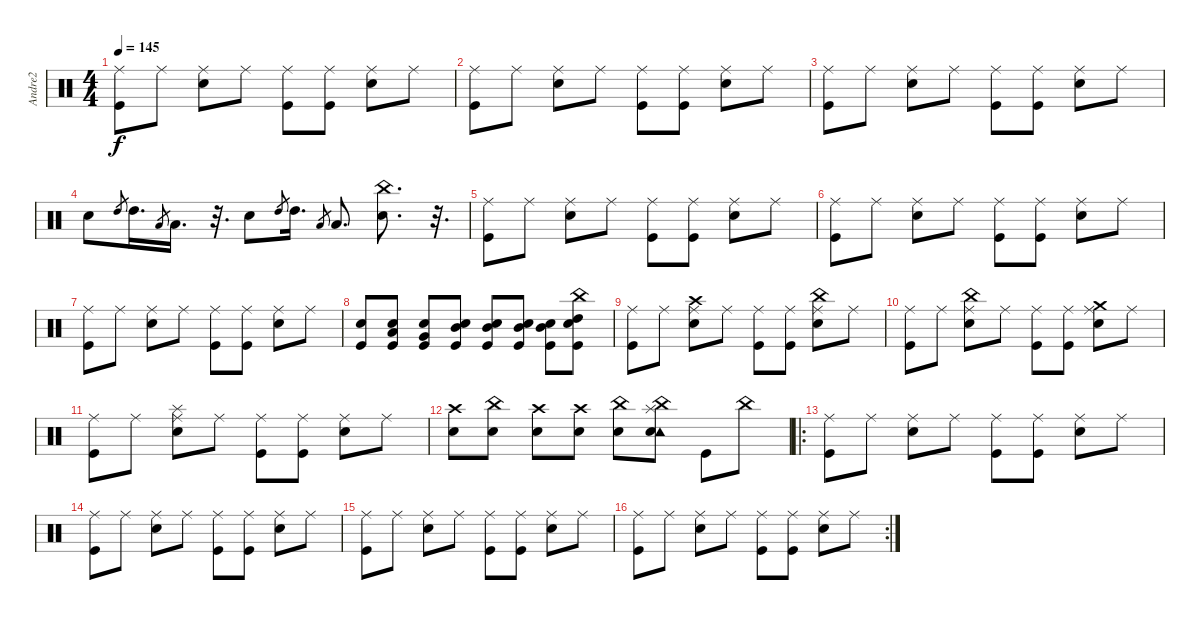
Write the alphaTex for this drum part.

\track ("Andre2" "Andre2") {instrument percussion}
\staff {score}
\articulation defaults
\ts (4 4)
\tempo 145
\clef neutral
\ks c
("Kick (hit)" "Ride (middle)").8{dy f} "Ride (middle)".8 ("Ride (middle)" "Snare (hit) 2").8 "Ride (middle)".8 ("Kick (hit)" "Ride (middle)").8 ("Kick (hit)" "Ride (middle)").8 ("Ride (middle)" "Snare (hit) 2").8 "Ride (middle)".8 |
("Kick (hit)" "Ride (middle)").8 "Ride (middle)".8 ("Ride (middle)" "Snare (hit) 2").8 "Ride (middle)".8 ("Kick (hit)" "Ride (middle)").8 ("Kick (hit)" "Ride (middle)").8 ("Ride (middle)" "Snare (hit) 2").8 "Ride (middle)".8 |
("Kick (hit)" "Ride (middle)").8 "Ride (middle)".8 ("Ride (middle)" "Snare (hit) 2").8 "Ride (middle)".8 ("Kick (hit)" "Ride (middle)").8 ("Kick (hit)" "Ride (middle)").8 ("Ride (middle)" "Snare (hit) 2").8 "Ride (middle)".8 |
"Snare (hit) 2".8 "High Tom (hit)".8{gr} "High Tom (hit)".16{d} "Low Tom (hit)".8{gr} "Low Tom (hit)".16{d} r.32{d} "Snare (hit) 2".8 "High Tom (hit)".8{gr} "High Tom (hit)".16{d} "Low Tom (hit)".8{gr} "Low Tom (hit)".8{d} ("China (hit)" "Snare (hit) 2").8{d} r.32{d} |
("Kick (hit)" "Ride (middle)").8 "Ride (middle)".8 ("Ride (middle)" "Snare (hit) 2").8 "Ride (middle)".8 ("Kick (hit)" "Ride (middle)").8 ("Kick (hit)" "Ride (middle)").8 ("Ride (middle)" "Snare (hit) 2").8 "Ride (middle)".8 |
("Kick (hit)" "Ride (middle)").8 "Ride (middle)".8 ("Ride (middle)" "Snare (hit) 2").8 "Ride (middle)".8 ("Kick (hit)" "Ride (middle)").8 ("Kick (hit)" "Ride (middle)").8 ("Ride (middle)" "Snare (hit) 2").8 "Ride (middle)".8 |
("Kick (hit)" "Ride (middle)").8 "Ride (middle)".8 ("Ride (middle)" "Snare (hit) 2").8 "Ride (middle)".8 ("Kick (hit)" "Ride (middle)").8 ("Kick (hit)" "Ride (middle)").8 ("Ride (middle)" "Snare (hit) 2").8 "Ride (middle)".8 |
("Snare (hit) 2" "Kick (hit)").8 ("Low Tom (hit)" "Kick (hit)" "Snare (hit) 2").8 ("Very Low Tom (hit)" "Kick (hit)" "Snare (hit) 2").8 ("Mid Tom (hit)" "Kick (hit)" "Snare (hit) 2").8 ("Mid Tom (hit)" "Kick (hit)" "Snare (hit) 2").8 ("Mid Tom (hit)" "Kick (hit)" "Snare (hit) 2").8 ("Mid Tom (hit)" "Kick (hit)" "Snare (hit) 2").8 ("High Tom (hit)" "Kick (hit)" "China (hit)" "Snare (hit) 2").8 |
("Kick (hit)" "Ride (middle)").8 "Ride (middle)".8 ("Crash high (hit)" "Ride (middle)" "Snare (hit) 2").8 "Ride (middle)".8 ("Kick (hit)" "Ride (middle)").8 ("Kick (hit)" "Ride (middle)").8 ("China (hit)" "Ride (middle)" "Snare (hit) 2").8 "Ride (middle)".8 |
("Kick (hit)" "Ride (middle)").8 "Ride (middle)".8 ("China (hit)" "Ride (middle)" "Snare (hit) 2").8 "Ride (middle)".8 ("Kick (hit)" "Ride (middle)").8 ("Kick (hit)" "Ride (middle)").8 ("Crash medium (hit)" "Ride (middle)" "Snare (hit) 2").8 "Ride (middle)".8 |
("Kick (hit)" "Ride (middle)").8 "Ride (middle)".8 ("Splash (hit)" "Ride (middle)" "Snare (hit) 2").8 "Ride (middle)".8 ("Kick (hit)" "Ride (middle)").8 ("Kick (hit)" "Ride (middle)").8 ("Ride (middle)" "Snare (hit) 2").8 "Ride (middle)".8 |
("Crash high (hit)" "Snare (hit) 2").8 ("China (hit)" "Snare (hit) 2").8 ("Crash high (hit)" "Snare (hit) 2").8 ("Crash high (hit)" "Snare (hit) 2").8 ("China (hit)" "Snare (hit) 2").8 ("Tambourine (hit)" "China (hit)" "Splash (hit)" "Snare (hit) 2").8 "Kick (hit)".8 "China (hit)".8 |
\ro
("Kick (hit)" "Ride (middle)").8 "Ride (middle)".8 ("Ride (middle)" "Snare (hit) 2").8 "Ride (middle)".8 ("Kick (hit)" "Ride (middle)").8 ("Kick (hit)" "Ride (middle)").8 ("Ride (middle)" "Snare (hit) 2").8 "Ride (middle)".8 |
("Kick (hit)" "Ride (middle)").8 "Ride (middle)".8 ("Ride (middle)" "Snare (hit) 2").8 "Ride (middle)".8 ("Kick (hit)" "Ride (middle)").8 ("Kick (hit)" "Ride (middle)").8 ("Ride (middle)" "Snare (hit) 2").8 "Ride (middle)".8 |
("Kick (hit)" "Ride (middle)").8 "Ride (middle)".8 ("Ride (middle)" "Snare (hit) 2").8 "Ride (middle)".8 ("Kick (hit)" "Ride (middle)").8 ("Kick (hit)" "Ride (middle)").8 ("Ride (middle)" "Snare (hit) 2").8 "Ride (middle)".8 |
\rc 2
("Kick (hit)" "Ride (middle)").8 "Ride (middle)".8 ("Ride (middle)" "Snare (hit) 2").8 "Ride (middle)".8 ("Kick (hit)" "Ride (middle)").8 ("Kick (hit)" "Ride (middle)").8 ("Ride (middle)" "Snare (hit) 2").8 "Ride (middle)".8
